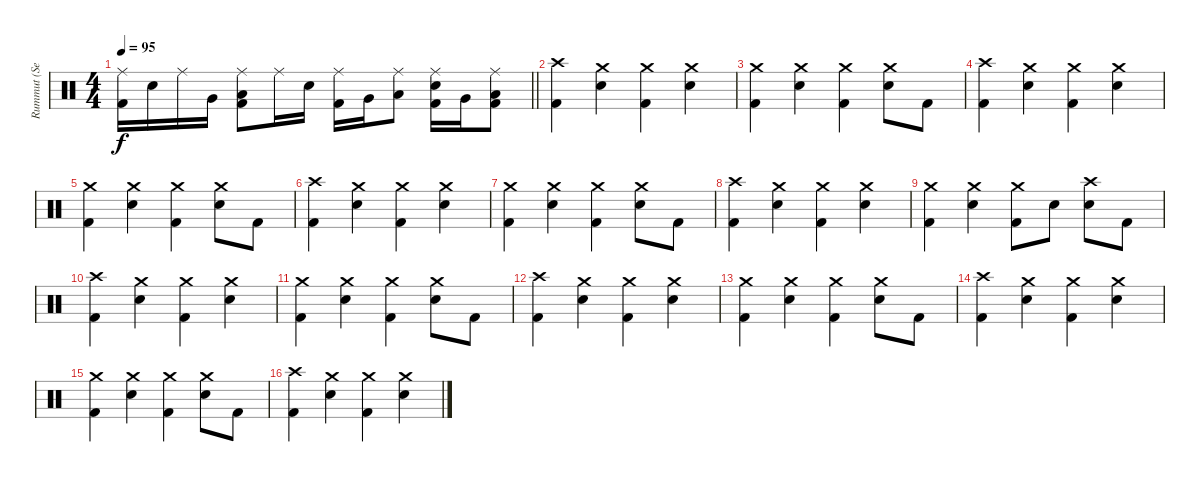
\track ("Rummut (Seppo Pohjolainen)" "Rummut (Se") {instrument percussion}
\staff {score}
\articulation defaults
\ts (4 4)
\tempo 95
\clef neutral
\barLineRight lightlight
\ks c
("Ride (middle)" "Kick (hit) 2").16{dy f} "Snare (hit) 2".16 "Ride (middle)".16 "Very Low Tom (hit)".16 ("Ride (middle)" "Low Floor Tom (hit)" "Kick (hit) 2").8 "Ride (middle)".16 "Snare (hit) 2".16 ("Ride (middle)" "Kick (hit) 2").16 "Very Low Tom (hit)".16 ("Ride (middle)" "Low Floor Tom (hit)").8 ("Ride (middle)" "Snare (hit) 2" "Kick (hit) 2").16 "Very Low Tom (hit)".16 ("Ride (middle)" "Low Floor Tom (hit)" "Kick (hit) 2").8 |
("Crash high (hit)" "Kick (hit) 2").4 ("Crash medium (hit)" "Snare (hit) 2").4 ("Crash medium (hit)" "Kick (hit) 2").4 ("Crash medium (hit)" "Snare (hit) 2").4 |
("Crash medium (hit)" "Kick (hit) 2").4 ("Crash medium (hit)" "Snare (hit) 2").4 ("Crash medium (hit)" "Kick (hit) 2").4 ("Crash medium (hit)" "Snare (hit) 2").8 "Kick (hit) 2".8 |
("Crash high (hit)" "Kick (hit) 2").4 ("Crash medium (hit)" "Snare (hit) 2").4 ("Crash medium (hit)" "Kick (hit) 2").4 ("Crash medium (hit)" "Snare (hit) 2").4 |
("Crash medium (hit)" "Kick (hit) 2").4 ("Crash medium (hit)" "Snare (hit) 2").4 ("Crash medium (hit)" "Kick (hit) 2").4 ("Crash medium (hit)" "Snare (hit) 2").8 "Kick (hit) 2".8 |
("Crash high (hit)" "Kick (hit) 2").4 ("Crash medium (hit)" "Snare (hit) 2").4 ("Crash medium (hit)" "Kick (hit) 2").4 ("Crash medium (hit)" "Snare (hit) 2").4 |
("Crash medium (hit)" "Kick (hit) 2").4 ("Crash medium (hit)" "Snare (hit) 2").4 ("Crash medium (hit)" "Kick (hit) 2").4 ("Crash medium (hit)" "Snare (hit) 2").8 "Kick (hit) 2".8 |
("Crash high (hit)" "Kick (hit) 2").4 ("Crash medium (hit)" "Snare (hit) 2").4 ("Crash medium (hit)" "Kick (hit) 2").4 ("Crash medium (hit)" "Snare (hit) 2").4 |
("Crash medium (hit)" "Kick (hit) 2").4 ("Crash medium (hit)" "Snare (hit) 2").4 ("Crash medium (hit)" "Kick (hit) 2").8 "Snare (hit) 2".8 ("Crash high (hit)" "Snare (hit) 2").8 "Kick (hit) 2".8 |
("Crash high (hit)" "Kick (hit) 2").4 ("Crash medium (hit)" "Snare (hit) 2").4 ("Crash medium (hit)" "Kick (hit) 2").4 ("Crash medium (hit)" "Snare (hit) 2").4 |
("Crash medium (hit)" "Kick (hit) 2").4 ("Crash medium (hit)" "Snare (hit) 2").4 ("Crash medium (hit)" "Kick (hit) 2").4 ("Crash medium (hit)" "Snare (hit) 2").8 "Kick (hit) 2".8 |
("Crash high (hit)" "Kick (hit) 2").4 ("Crash medium (hit)" "Snare (hit) 2").4 ("Crash medium (hit)" "Kick (hit) 2").4 ("Crash medium (hit)" "Snare (hit) 2").4 |
("Crash medium (hit)" "Kick (hit) 2").4 ("Crash medium (hit)" "Snare (hit) 2").4 ("Crash medium (hit)" "Kick (hit) 2").4 ("Crash medium (hit)" "Snare (hit) 2").8 "Kick (hit) 2".8 |
("Crash high (hit)" "Kick (hit) 2").4 ("Crash medium (hit)" "Snare (hit) 2").4 ("Crash medium (hit)" "Kick (hit) 2").4 ("Crash medium (hit)" "Snare (hit) 2").4 |
("Crash medium (hit)" "Kick (hit) 2").4 ("Crash medium (hit)" "Snare (hit) 2").4 ("Crash medium (hit)" "Kick (hit) 2").4 ("Crash medium (hit)" "Snare (hit) 2").8 "Kick (hit) 2".8 |
("Crash high (hit)" "Kick (hit) 2").4 ("Crash medium (hit)" "Snare (hit) 2").4 ("Crash medium (hit)" "Kick (hit) 2").4 ("Crash medium (hit)" "Snare (hit) 2").4
